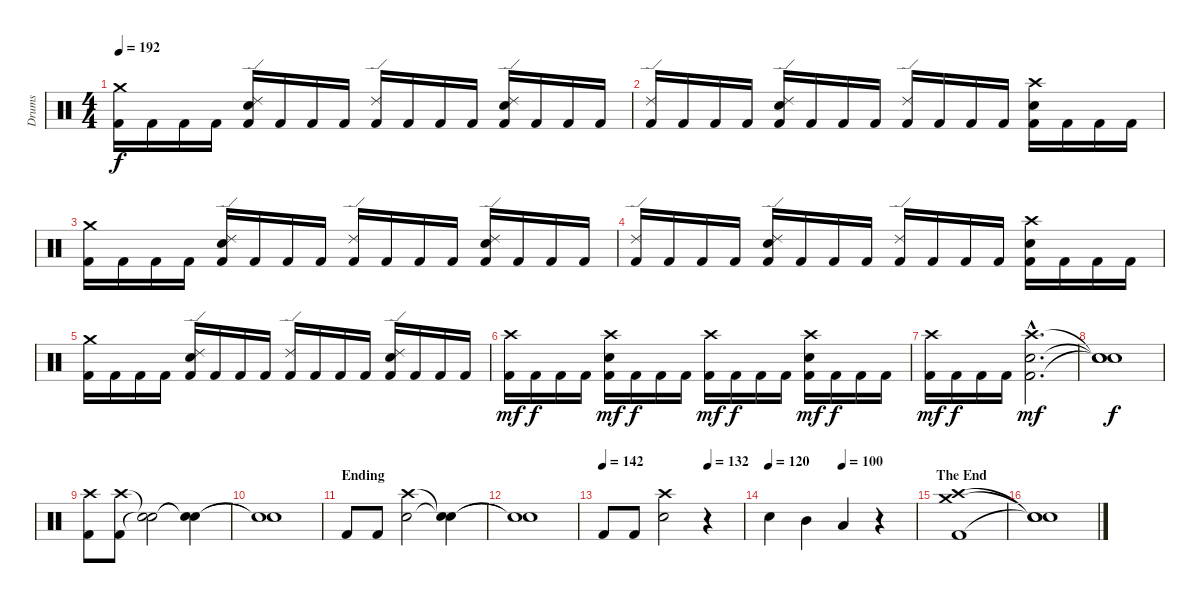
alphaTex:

\track ("Drums" "Drums") {instrument percussion}
\staff {score}
\articulation defaults
\ts (4 4)
\tempo 192
\clef neutral
\ks c
("Kick (hit) 2" "Crash medium (hit)").16{dy f} "Kick (hit) 2".16 "Kick (hit) 2".16 "Kick (hit) 2".16 ("Kick (hit) 2" "Electric Snare (hit)" "Ride (edge) 2").16 "Kick (hit) 2".16 "Kick (hit) 2".16 "Kick (hit) 2".16 ("Kick (hit) 2" "Ride (edge) 2").16 "Kick (hit) 2".16 "Kick (hit) 2".16 "Kick (hit) 2".16 ("Kick (hit) 2" "Electric Snare (hit)" "Ride (edge) 2").16 "Kick (hit) 2".16 "Kick (hit) 2".16 "Kick (hit) 2".16 |
("Kick (hit) 2" "Ride (edge) 2").16 "Kick (hit) 2".16 "Kick (hit) 2".16 "Kick (hit) 2".16 ("Kick (hit) 2" "Electric Snare (hit)" "Ride (edge) 2").16 "Kick (hit) 2".16 "Kick (hit) 2".16 "Kick (hit) 2".16 ("Kick (hit) 2" "Ride (edge) 2").16 "Kick (hit) 2".16 "Kick (hit) 2".16 "Kick (hit) 2".16 ("Kick (hit) 2" "Electric Snare (hit)" "Crash high (hit)").16 "Kick (hit) 2".16 "Kick (hit) 2".16 "Kick (hit) 2".16 |
("Kick (hit) 2" "Crash medium (hit)").16 "Kick (hit) 2".16 "Kick (hit) 2".16 "Kick (hit) 2".16 ("Kick (hit) 2" "Electric Snare (hit)" "Ride (edge) 2").16 "Kick (hit) 2".16 "Kick (hit) 2".16 "Kick (hit) 2".16 ("Kick (hit) 2" "Ride (edge) 2").16 "Kick (hit) 2".16 "Kick (hit) 2".16 "Kick (hit) 2".16 ("Kick (hit) 2" "Electric Snare (hit)" "Ride (edge) 2").16 "Kick (hit) 2".16 "Kick (hit) 2".16 "Kick (hit) 2".16 |
("Kick (hit) 2" "Ride (edge) 2").16 "Kick (hit) 2".16 "Kick (hit) 2".16 "Kick (hit) 2".16 ("Kick (hit) 2" "Electric Snare (hit)" "Ride (edge) 2").16 "Kick (hit) 2".16 "Kick (hit) 2".16 "Kick (hit) 2".16 ("Kick (hit) 2" "Ride (edge) 2").16 "Kick (hit) 2".16 "Kick (hit) 2".16 "Kick (hit) 2".16 ("Kick (hit) 2" "Electric Snare (hit)" "Crash high (hit)").16 "Kick (hit) 2".16 "Kick (hit) 2".16 "Kick (hit) 2".16 |
("Kick (hit) 2" "Crash medium (hit)").16 "Kick (hit) 2".16 "Kick (hit) 2".16 "Kick (hit) 2".16 ("Kick (hit) 2" "Electric Snare (hit)" "Ride (edge) 2").16 "Kick (hit) 2".16 "Kick (hit) 2".16 "Kick (hit) 2".16 ("Kick (hit) 2" "Ride (edge) 2").16 "Kick (hit) 2".16 "Kick (hit) 2".16 "Kick (hit) 2".16 ("Kick (hit) 2" "Electric Snare (hit)" "Ride (edge) 2").16 "Kick (hit) 2".16 "Kick (hit) 2".16 "Kick (hit) 2".16 |
("Kick (hit) 2" "Crash high (hit)").16{dy mf} "Kick (hit) 2".16{dy f} "Kick (hit) 2".16 "Kick (hit) 2".16 ("Kick (hit) 2" "Electric Snare (hit)" "Crash high (hit)").16{dy mf} "Kick (hit) 2".16{dy f} "Kick (hit) 2".16 "Kick (hit) 2".16 ("Kick (hit) 2" "Crash high (hit)").16{dy mf} "Kick (hit) 2".16{dy f} "Kick (hit) 2".16 "Kick (hit) 2".16 ("Kick (hit) 2" "Electric Snare (hit)" "Crash high (hit)").16{dy mf} "Kick (hit) 2".16{dy f} "Kick (hit) 2".16 "Kick (hit) 2".16 |
("Kick (hit) 2" "Crash high (hit)").16{dy mf} "Kick (hit) 2".16{dy f} "Kick (hit) 2".16 "Kick (hit) 2".16 ("Kick (hit) 2"{hac} "Electric Snare (hit)"{hac} "Crash high (hit)"{hac}).2{d dy mf} |
("Snare (hit)"{t} "Snare (hit)"{t} "Snare (hit)"{t}).1{dy f} |
("Kick (hit) 2" "Crash high (hit)").8 ("Kick (hit) 2" "Crash high (hit)").8 ("Snare (hit)"{t} "Snare (hit)"{t}).2 ("Snare (hit)"{t} "Snare (hit)"{t}).4 |
("Snare (hit)"{t} "Snare (hit)"{t}).1 |
\section ("" "Ending")
"Kick (hit) 2".8 "Kick (hit) 2".8 ("Electric Snare (hit)" "Crash high (hit)").2 ("Snare (hit)"{t} "Snare (hit)"{t}).4 |
("Snare (hit)"{t} "Snare (hit)"{t}).1 |
\tempo 142
\tempo (132 0.75)
"Kick (hit) 2".8 "Kick (hit) 2".8 ("Electric Snare (hit)" "Crash high (hit)").2 r.4 |
\tempo 120
\tempo (100 0.5)
"Electric Snare (hit)".4 "Mid Tom (hit)".4 "Low Tom (hit)".4 r.4 |
\section ("" "The End")
("Kick (hit) 2" "Crash medium (hit)" "Crash high (hit)").1 |
("Snare (hit)"{t} "Snare (hit)"{t} "Snare (hit)"{t}).1
